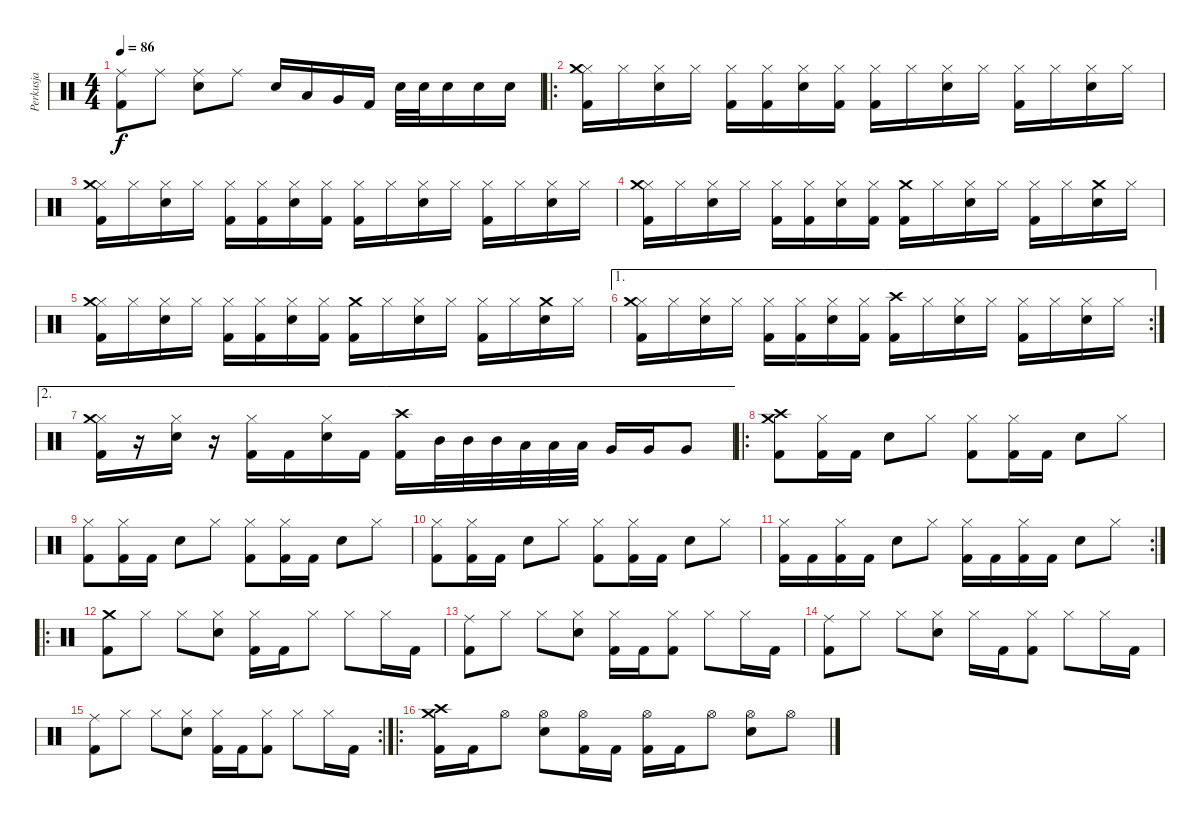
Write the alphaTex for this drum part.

\track ("Perkusja" "Perkusja") {instrument percussion}
\staff {score}
\articulation defaults
\ts (4 4)
\tempo 86
\clef neutral
\ks c
("Ride (middle)" "Kick (hit) 2").8{dy f} "Ride (middle)".8 ("Ride (middle)" "Snare (hit) 2").8 "Ride (middle)".8 "Snare (hit) 2".16 "Low Tom (hit)".16 "Very Low Tom (hit)".16 "Kick (hit) 2".16 "Snare (hit) 2".32 "Snare (hit) 2".32 "Snare (hit) 2".16 "Snare (hit) 2".16 "Snare (hit) 2".16 |
\ro
("Hi-Hat (closed)" "Crash medium (hit)" "Kick (hit) 2").16 "Hi-Hat (closed)".16 ("Hi-Hat (closed)" "Snare (hit) 2").16 "Hi-Hat (closed)".16 ("Hi-Hat (closed)" "Kick (hit) 2").16 ("Hi-Hat (closed)" "Kick (hit) 2").16 ("Hi-Hat (closed)" "Snare (hit) 2").16 ("Hi-Hat (closed)" "Kick (hit) 2").16 ("Hi-Hat (closed)" "Kick (hit) 2").16 "Hi-Hat (closed)".16 ("Hi-Hat (closed)" "Snare (hit) 2").16 "Hi-Hat (closed)".16 ("Hi-Hat (closed)" "Kick (hit) 2").16 "Hi-Hat (closed)".16 ("Hi-Hat (closed)" "Snare (hit) 2").16 "Hi-Hat (closed)".16 |
("Hi-Hat (closed)" "Crash medium (hit)" "Kick (hit) 2").16 "Hi-Hat (closed)".16 ("Hi-Hat (closed)" "Snare (hit) 2").16 "Hi-Hat (closed)".16 ("Hi-Hat (closed)" "Kick (hit) 2").16 ("Hi-Hat (closed)" "Kick (hit) 2").16 ("Hi-Hat (closed)" "Snare (hit) 2").16 ("Hi-Hat (closed)" "Kick (hit) 2").16 ("Hi-Hat (closed)" "Kick (hit) 2").16 "Hi-Hat (closed)".16 ("Hi-Hat (closed)" "Snare (hit) 2").16 "Hi-Hat (closed)".16 ("Hi-Hat (closed)" "Kick (hit) 2").16 "Hi-Hat (closed)".16 ("Hi-Hat (closed)" "Snare (hit) 2").16 "Hi-Hat (closed)".16 |
("Hi-Hat (closed)" "Crash medium (hit)" "Kick (hit) 2").16 "Hi-Hat (closed)".16 ("Hi-Hat (closed)" "Snare (hit) 2").16 "Hi-Hat (closed)".16 ("Hi-Hat (closed)" "Kick (hit) 2").16 ("Hi-Hat (closed)" "Kick (hit) 2").16 ("Hi-Hat (closed)" "Snare (hit) 2").16 ("Hi-Hat (closed)" "Kick (hit) 2").16 ("Crash medium (hit)" "Kick (hit) 2").16 "Hi-Hat (closed)".16 ("Hi-Hat (closed)" "Snare (hit) 2").16 "Hi-Hat (closed)".16 ("Hi-Hat (closed)" "Kick (hit) 2").16 "Hi-Hat (closed)".16 ("Crash medium (hit)" "Snare (hit) 2").16 "Hi-Hat (closed)".16 |
("Hi-Hat (closed)" "Crash medium (hit)" "Kick (hit) 2").16 "Hi-Hat (closed)".16 ("Hi-Hat (closed)" "Snare (hit) 2").16 "Hi-Hat (closed)".16 ("Hi-Hat (closed)" "Kick (hit) 2").16 ("Hi-Hat (closed)" "Kick (hit) 2").16 ("Hi-Hat (closed)" "Snare (hit) 2").16 ("Hi-Hat (closed)" "Kick (hit) 2").16 ("Crash medium (hit)" "Kick (hit) 2").16 "Hi-Hat (closed)".16 ("Hi-Hat (closed)" "Snare (hit) 2").16 "Hi-Hat (closed)".16 ("Hi-Hat (closed)" "Kick (hit) 2").16 "Hi-Hat (closed)".16 ("Crash medium (hit)" "Snare (hit) 2").16 "Hi-Hat (closed)".16 |
\ae 1
\rc 2
("Hi-Hat (closed)" "Crash medium (hit)" "Kick (hit) 2").16 "Hi-Hat (closed)".16 ("Hi-Hat (closed)" "Snare (hit) 2").16 "Hi-Hat (closed)".16 ("Hi-Hat (closed)" "Kick (hit) 2").16 ("Hi-Hat (closed)" "Kick (hit) 2").16 ("Hi-Hat (closed)" "Snare (hit) 2").16 ("Hi-Hat (closed)" "Kick (hit) 2").16 ("Crash high (hit)" "Kick (hit) 2").16 "Hi-Hat (closed)".16 ("Hi-Hat (closed)" "Snare (hit) 2").16 "Hi-Hat (closed)".16 ("Hi-Hat (closed)" "Kick (hit) 2").16 "Hi-Hat (closed)".16 ("Hi-Hat (closed)" "Snare (hit) 2").16 "Hi-Hat (closed)".16 |
\ae 2
("Hi-Hat (closed)" "Crash medium (hit)" "Kick (hit) 2").16 r.16 ("Hi-Hat (closed)" "Snare (hit) 2").16 r.16 ("Hi-Hat (closed)" "Kick (hit) 2").16 "Kick (hit) 2".16 ("Hi-Hat (closed)" "Snare (hit) 2").16 "Kick (hit) 2".16 ("Crash high (hit)" "Kick (hit) 2").16 "Mid Tom (hit)".32 "Mid Tom (hit)".32 "Mid Tom (hit)".32 "Low Tom (hit)".32 "Low Tom (hit)".32 "Low Tom (hit)".32 "Very Low Tom (hit)".16 "Very Low Tom (hit)".16 "Very Low Tom (hit)".8 |
\ro
("Crash high (hit)" "Crash medium (hit)" "Kick (hit) 2").8 ("Hi-Hat (closed)" "Kick (hit) 2").16 "Kick (hit) 2".16 "Snare (hit) 2".8 "Hi-Hat (closed)".8 ("Hi-Hat (closed)" "Kick (hit) 2").8 ("Hi-Hat (closed)" "Kick (hit) 2").16 "Kick (hit) 2".16 "Snare (hit) 2".8 "Hi-Hat (closed)".8 |
("Hi-Hat (closed)" "Kick (hit) 2").8 ("Hi-Hat (closed)" "Kick (hit) 2").16 "Kick (hit) 2".16 "Snare (hit) 2".8 "Hi-Hat (closed)".8 ("Hi-Hat (closed)" "Kick (hit) 2").8 ("Hi-Hat (closed)" "Kick (hit) 2").16 "Kick (hit) 2".16 "Snare (hit) 2".8 "Hi-Hat (closed)".8 |
("Hi-Hat (closed)" "Kick (hit) 2").8 ("Hi-Hat (closed)" "Kick (hit) 2").16 "Kick (hit) 2".16 "Snare (hit) 2".8 "Hi-Hat (closed)".8 ("Hi-Hat (closed)" "Kick (hit) 2").8 ("Hi-Hat (closed)" "Kick (hit) 2").16 "Kick (hit) 2".16 "Snare (hit) 2".8 "Hi-Hat (closed)".8 |
\rc 2
("Hi-Hat (closed)" "Kick (hit) 2").16 "Kick (hit) 2".16 ("Hi-Hat (closed)" "Kick (hit) 2").16 "Kick (hit) 2".16 "Snare (hit) 2".8 "Hi-Hat (closed)".8 ("Hi-Hat (closed)" "Kick (hit) 2").16 "Kick (hit) 2".16 ("Hi-Hat (closed)" "Kick (hit) 2").16 "Kick (hit) 2".16 "Snare (hit) 2".8 "Hi-Hat (closed)".8 |
\ro
("Crash medium (hit)" "Kick (hit) 2").8 "Hi-Hat (closed)".8 "Hi-Hat (closed)".8 ("Hi-Hat (closed)" "Snare (hit) 2").8 ("Hi-Hat (closed)" "Kick (hit) 2").16 "Kick (hit) 2".16 "Hi-Hat (closed)".8 "Hi-Hat (closed)".8 "Hi-Hat (closed)".16 "Kick (hit) 2".16 |
("Ride (middle)" "Kick (hit) 2").8 "Hi-Hat (closed)".8 "Hi-Hat (closed)".8 ("Hi-Hat (closed)" "Snare (hit) 2").8 ("Hi-Hat (closed)" "Kick (hit) 2").16 "Kick (hit) 2".16 ("Hi-Hat (closed)" "Kick (hit) 2").8 "Hi-Hat (closed)".8 "Hi-Hat (closed)".16 "Kick (hit) 2".16 |
("Ride (middle)" "Kick (hit) 2").8 "Hi-Hat (closed)".8 "Hi-Hat (closed)".8 ("Hi-Hat (closed)" "Snare (hit) 2").8 "Hi-Hat (closed)".16 "Kick (hit) 2".16 ("Hi-Hat (closed)" "Kick (hit) 2").8 "Hi-Hat (closed)".8 "Hi-Hat (closed)".16 "Kick (hit) 2".16 |
\rc 2
("Ride (middle)" "Kick (hit) 2").8 "Hi-Hat (closed)".8 "Hi-Hat (closed)".8 ("Hi-Hat (closed)" "Snare (hit) 2").8 ("Hi-Hat (closed)" "Kick (hit) 2").16 "Kick (hit) 2".16 ("Hi-Hat (closed)" "Kick (hit) 2").8 "Hi-Hat (closed)".8 "Hi-Hat (closed)".16 "Kick (hit) 2".16 |
\ro
("Crash high (hit)" "Crash medium (hit)" "Kick (hit) 2").16 "Kick (hit) 2".16 "Hi-Hat (open)".8 ("Hi-Hat (open)" "Snare (hit) 2").8 ("Hi-Hat (open)" "Kick (hit) 2").16 "Kick (hit) 2".16 ("Hi-Hat (open)" "Kick (hit) 2").16 "Kick (hit) 2".16 "Hi-Hat (open)".8 ("Hi-Hat (open)" "Snare (hit) 2").8 "Hi-Hat (open)".8
